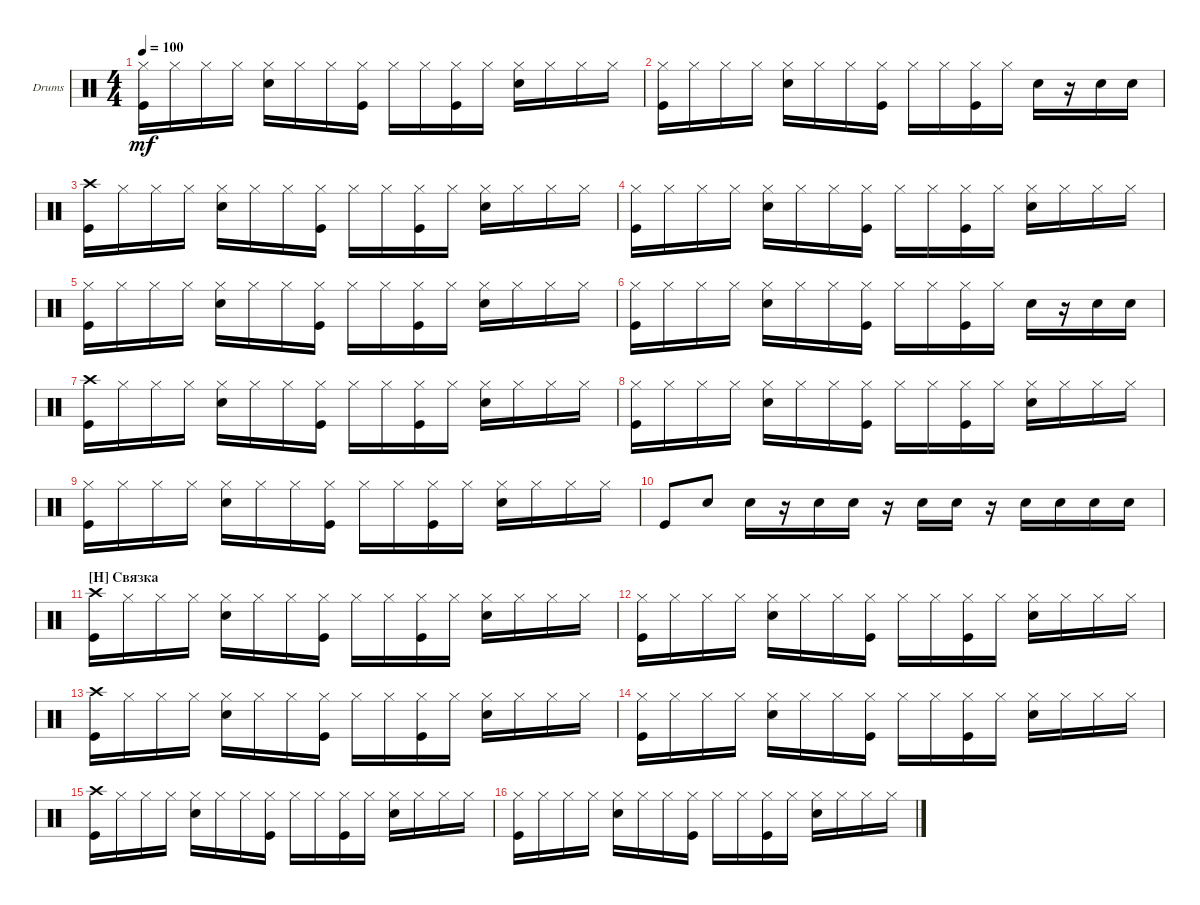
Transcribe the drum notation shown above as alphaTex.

\bracketExtendMode groupsimilarinstruments
\firstSystemTrackNameOrientation horizontal
\otherSystemsTrackNameOrientation horizontal
\track ("Drumkit" "Drums") {instrument percussion}
\staff {score}
\articulation defaults
\ts (4 4)
\tempo 100
\clef neutral
\ks c
("Kick (hit)" "Hi-Hat (closed)").16{dy mf} "Hi-Hat (closed)".16 "Hi-Hat (closed)".16 "Hi-Hat (closed)".16 ("Hi-Hat (closed)" "Snare (hit) 2").16 "Hi-Hat (closed)".16 "Hi-Hat (closed)".16 ("Hi-Hat (closed)" "Kick (hit)").16 "Hi-Hat (closed)".16 "Hi-Hat (closed)".16 ("Hi-Hat (closed)" "Kick (hit)").16 "Hi-Hat (closed)".16 ("Hi-Hat (closed)" "Snare (hit) 2").16 "Hi-Hat (closed)".16 "Hi-Hat (closed)".16 "Hi-Hat (closed)".16 |
("Kick (hit)" "Hi-Hat (closed)").16 "Hi-Hat (closed)".16 "Hi-Hat (closed)".16 "Hi-Hat (closed)".16 ("Hi-Hat (closed)" "Snare (hit) 2").16 "Hi-Hat (closed)".16 "Hi-Hat (closed)".16 ("Hi-Hat (closed)" "Kick (hit)").16 "Hi-Hat (closed)".16 "Hi-Hat (closed)".16 ("Hi-Hat (closed)" "Kick (hit)").16 "Hi-Hat (closed)".16 "Snare (hit) 2".16 r.16 "Snare (hit) 2".16 "Snare (hit) 2".16 |
("Kick (hit)" "Crash high (hit)").16 "Hi-Hat (closed)".16 "Hi-Hat (closed)".16 "Hi-Hat (closed)".16 ("Hi-Hat (closed)" "Snare (hit) 2").16 "Hi-Hat (closed)".16 "Hi-Hat (closed)".16 ("Hi-Hat (closed)" "Kick (hit)").16 "Hi-Hat (closed)".16 "Hi-Hat (closed)".16 ("Hi-Hat (closed)" "Kick (hit)").16 "Hi-Hat (closed)".16 ("Hi-Hat (closed)" "Snare (hit) 2").16 "Hi-Hat (closed)".16 "Hi-Hat (closed)".16 "Hi-Hat (closed)".16 |
("Kick (hit)" "Hi-Hat (closed)").16 "Hi-Hat (closed)".16 "Hi-Hat (closed)".16 "Hi-Hat (closed)".16 ("Hi-Hat (closed)" "Snare (hit) 2").16 "Hi-Hat (closed)".16 "Hi-Hat (closed)".16 ("Hi-Hat (closed)" "Kick (hit)").16 "Hi-Hat (closed)".16 "Hi-Hat (closed)".16 ("Hi-Hat (closed)" "Kick (hit)").16 "Hi-Hat (closed)".16 ("Hi-Hat (closed)" "Snare (hit) 2").16 "Hi-Hat (closed)".16 "Hi-Hat (closed)".16 "Hi-Hat (closed)".16 |
("Kick (hit)" "Hi-Hat (closed)").16 "Hi-Hat (closed)".16 "Hi-Hat (closed)".16 "Hi-Hat (closed)".16 ("Hi-Hat (closed)" "Snare (hit) 2").16 "Hi-Hat (closed)".16 "Hi-Hat (closed)".16 ("Hi-Hat (closed)" "Kick (hit)").16 "Hi-Hat (closed)".16 "Hi-Hat (closed)".16 ("Hi-Hat (closed)" "Kick (hit)").16 "Hi-Hat (closed)".16 ("Hi-Hat (closed)" "Snare (hit) 2").16 "Hi-Hat (closed)".16 "Hi-Hat (closed)".16 "Hi-Hat (closed)".16 |
("Kick (hit)" "Hi-Hat (closed)").16 "Hi-Hat (closed)".16 "Hi-Hat (closed)".16 "Hi-Hat (closed)".16 ("Hi-Hat (closed)" "Snare (hit) 2").16 "Hi-Hat (closed)".16 "Hi-Hat (closed)".16 ("Hi-Hat (closed)" "Kick (hit)").16 "Hi-Hat (closed)".16 "Hi-Hat (closed)".16 ("Hi-Hat (closed)" "Kick (hit)").16 "Hi-Hat (closed)".16 "Snare (hit) 2".16 r.16 "Snare (hit) 2".16 "Snare (hit) 2".16 |
("Kick (hit)" "Crash high (hit)").16 "Hi-Hat (closed)".16 "Hi-Hat (closed)".16 "Hi-Hat (closed)".16 ("Hi-Hat (closed)" "Snare (hit) 2").16 "Hi-Hat (closed)".16 "Hi-Hat (closed)".16 ("Hi-Hat (closed)" "Kick (hit)").16 "Hi-Hat (closed)".16 "Hi-Hat (closed)".16 ("Hi-Hat (closed)" "Kick (hit)").16 "Hi-Hat (closed)".16 ("Hi-Hat (closed)" "Snare (hit) 2").16 "Hi-Hat (closed)".16 "Hi-Hat (closed)".16 "Hi-Hat (closed)".16 |
("Kick (hit)" "Hi-Hat (closed)").16 "Hi-Hat (closed)".16 "Hi-Hat (closed)".16 "Hi-Hat (closed)".16 ("Hi-Hat (closed)" "Snare (hit) 2").16 "Hi-Hat (closed)".16 "Hi-Hat (closed)".16 ("Hi-Hat (closed)" "Kick (hit)").16 "Hi-Hat (closed)".16 "Hi-Hat (closed)".16 ("Hi-Hat (closed)" "Kick (hit)").16 "Hi-Hat (closed)".16 ("Hi-Hat (closed)" "Snare (hit) 2").16 "Hi-Hat (closed)".16 "Hi-Hat (closed)".16 "Hi-Hat (closed)".16 |
("Kick (hit)" "Hi-Hat (closed)").16 "Hi-Hat (closed)".16 "Hi-Hat (closed)".16 "Hi-Hat (closed)".16 ("Hi-Hat (closed)" "Snare (hit) 2").16 "Hi-Hat (closed)".16 "Hi-Hat (closed)".16 ("Hi-Hat (closed)" "Kick (hit)").16 "Hi-Hat (closed)".16 "Hi-Hat (closed)".16 ("Hi-Hat (closed)" "Kick (hit)").16 "Hi-Hat (closed)".16 ("Hi-Hat (closed)" "Snare (hit) 2").16 "Hi-Hat (closed)".16 "Hi-Hat (closed)".16 "Hi-Hat (closed)".16 |
"Kick (hit)".8 "Snare (hit) 2".8 "Snare (hit) 2".16 r.16 "Snare (hit) 2".16 "Snare (hit) 2".16 r.16 "Snare (hit) 2".16 "Snare (hit) 2".16 r.16 "Snare (hit) 2".16 "Snare (hit) 2".16 "Snare (hit) 2".16 "Snare (hit) 2".16 |
\section ("H" "Связка")
("Kick (hit)" "Crash high (hit)").16 "Hi-Hat (closed)".16 "Hi-Hat (closed)".16 "Hi-Hat (closed)".16 ("Hi-Hat (closed)" "Snare (hit) 2").16 "Hi-Hat (closed)".16 "Hi-Hat (closed)".16 ("Hi-Hat (closed)" "Kick (hit)").16 "Hi-Hat (closed)".16 "Hi-Hat (closed)".16 ("Hi-Hat (closed)" "Kick (hit)").16 "Hi-Hat (closed)".16 ("Hi-Hat (closed)" "Snare (hit) 2").16 "Hi-Hat (closed)".16 "Hi-Hat (closed)".16 "Hi-Hat (closed)".16 |
("Kick (hit)" "Hi-Hat (closed)").16 "Hi-Hat (closed)".16 "Hi-Hat (closed)".16 "Hi-Hat (closed)".16 ("Hi-Hat (closed)" "Snare (hit) 2").16 "Hi-Hat (closed)".16 "Hi-Hat (closed)".16 ("Hi-Hat (closed)" "Kick (hit)").16 "Hi-Hat (closed)".16 "Hi-Hat (closed)".16 ("Hi-Hat (closed)" "Kick (hit)").16 "Hi-Hat (closed)".16 ("Hi-Hat (closed)" "Snare (hit) 2").16 "Hi-Hat (closed)".16 "Hi-Hat (closed)".16 "Hi-Hat (closed)".16 |
("Kick (hit)" "Crash high (hit)").16 "Hi-Hat (closed)".16 "Hi-Hat (closed)".16 "Hi-Hat (closed)".16 ("Hi-Hat (closed)" "Snare (hit) 2").16 "Hi-Hat (closed)".16 "Hi-Hat (closed)".16 ("Hi-Hat (closed)" "Kick (hit)").16 "Hi-Hat (closed)".16 "Hi-Hat (closed)".16 ("Hi-Hat (closed)" "Kick (hit)").16 "Hi-Hat (closed)".16 ("Hi-Hat (closed)" "Snare (hit) 2").16 "Hi-Hat (closed)".16 "Hi-Hat (closed)".16 "Hi-Hat (closed)".16 |
("Kick (hit)" "Hi-Hat (closed)").16 "Hi-Hat (closed)".16 "Hi-Hat (closed)".16 "Hi-Hat (closed)".16 ("Hi-Hat (closed)" "Snare (hit) 2").16 "Hi-Hat (closed)".16 "Hi-Hat (closed)".16 ("Hi-Hat (closed)" "Kick (hit)").16 "Hi-Hat (closed)".16 "Hi-Hat (closed)".16 ("Hi-Hat (closed)" "Kick (hit)").16 "Hi-Hat (closed)".16 ("Hi-Hat (closed)" "Snare (hit) 2").16 "Hi-Hat (closed)".16 "Hi-Hat (closed)".16 "Hi-Hat (closed)".16 |
("Kick (hit)" "Crash high (hit)").16 "Hi-Hat (closed)".16 "Hi-Hat (closed)".16 "Hi-Hat (closed)".16 ("Hi-Hat (closed)" "Snare (hit) 2").16 "Hi-Hat (closed)".16 "Hi-Hat (closed)".16 ("Hi-Hat (closed)" "Kick (hit)").16 "Hi-Hat (closed)".16 "Hi-Hat (closed)".16 ("Hi-Hat (closed)" "Kick (hit)").16 "Hi-Hat (closed)".16 ("Hi-Hat (closed)" "Snare (hit) 2").16 "Hi-Hat (closed)".16 "Hi-Hat (closed)".16 "Hi-Hat (closed)".16 |
("Kick (hit)" "Hi-Hat (closed)").16 "Hi-Hat (closed)".16 "Hi-Hat (closed)".16 "Hi-Hat (closed)".16 ("Hi-Hat (closed)" "Snare (hit) 2").16 "Hi-Hat (closed)".16 "Hi-Hat (closed)".16 ("Hi-Hat (closed)" "Kick (hit)").16 "Hi-Hat (closed)".16 "Hi-Hat (closed)".16 ("Hi-Hat (closed)" "Kick (hit)").16 "Hi-Hat (closed)".16 ("Hi-Hat (closed)" "Snare (hit) 2").16 "Hi-Hat (closed)".16 "Hi-Hat (closed)".16 "Hi-Hat (closed)".16
